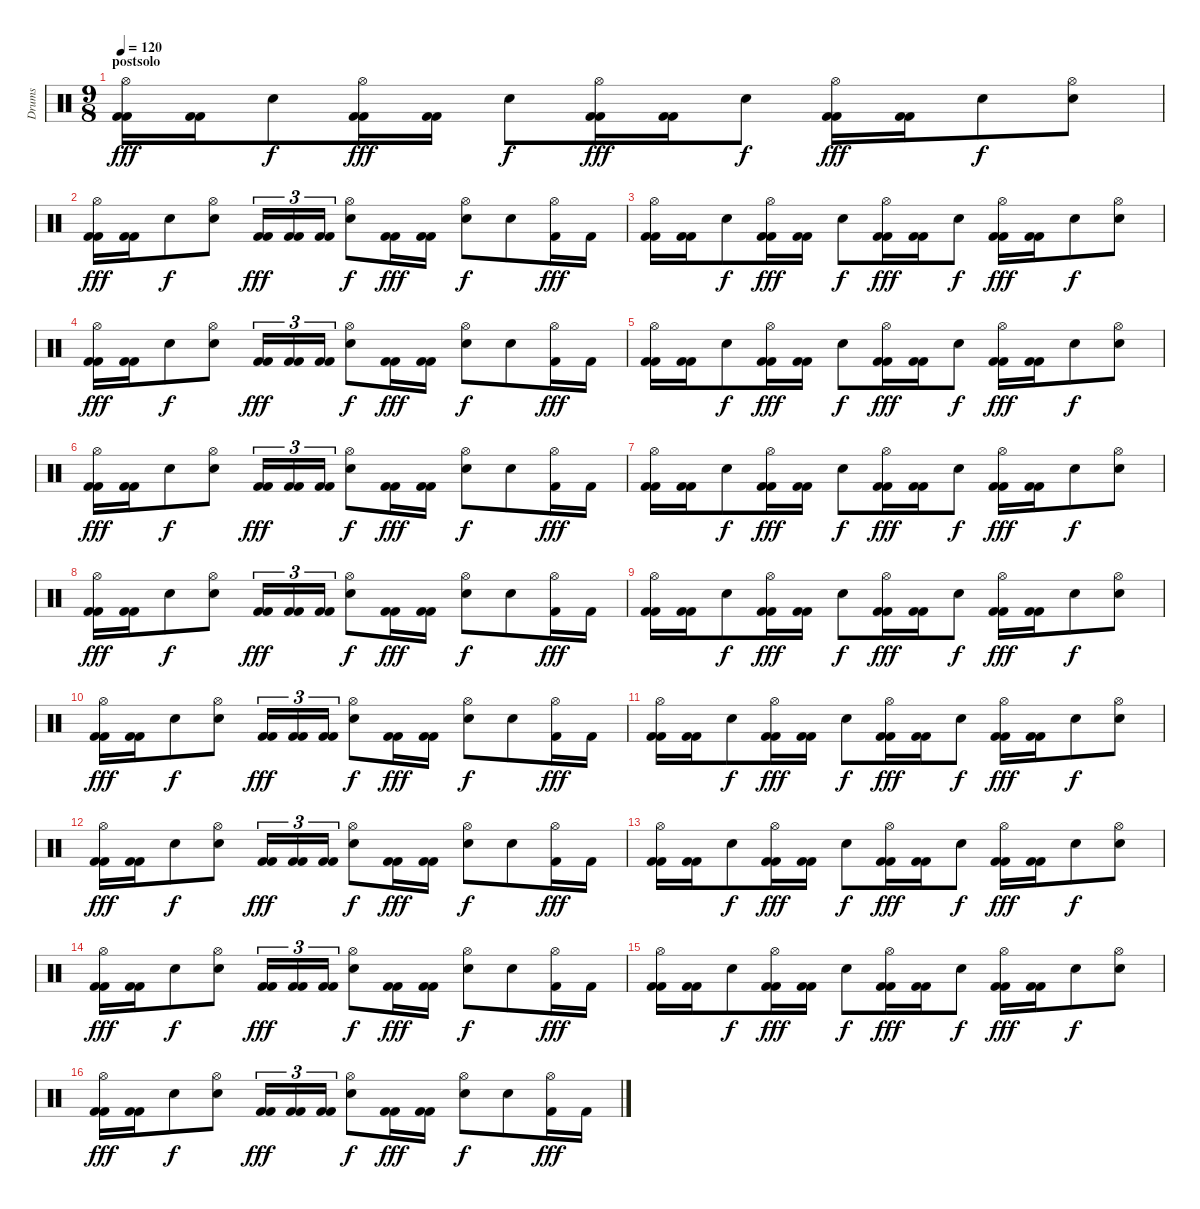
\track ("Drums" "Drums") {instrument percussion}
\staff {score}
\articulation defaults
\ts (9 8)
\section ("" "postsolo")
\tempo 120
\clef neutral
\ks c
("Kick (hit) 2" "Kick (hit) 2" "Hi-Hat (open)").16{dy fff} ("Kick (hit) 2" "Kick (hit) 2").16 "Electric Snare (hit)".8{dy f} ("Kick (hit) 2" "Kick (hit) 2" "Hi-Hat (open)").16{dy fff} ("Kick (hit) 2" "Kick (hit) 2").16 "Electric Snare (hit)".8{dy f} ("Kick (hit) 2" "Kick (hit) 2" "Hi-Hat (open)").16{dy fff} ("Kick (hit) 2" "Kick (hit) 2").16 "Electric Snare (hit)".8{dy f} ("Kick (hit) 2" "Kick (hit) 2" "Hi-Hat (open)").16{dy fff} ("Kick (hit) 2" "Kick (hit) 2").16 "Electric Snare (hit)".8{dy f} ("Electric Snare (hit)" "Hi-Hat (open)").8 |
("Kick (hit) 2" "Kick (hit) 2" "Hi-Hat (open)").16{dy fff} ("Kick (hit) 2" "Kick (hit) 2").16 "Electric Snare (hit)".8{dy f} ("Electric Snare (hit)" "Hi-Hat (open)").8 ("Kick (hit) 2" "Kick (hit) 2").16{tu (3 2) dy fff} ("Kick (hit) 2" "Kick (hit) 2").16{tu (3 2)} ("Kick (hit) 2" "Kick (hit) 2").16{tu (3 2)} ("Electric Snare (hit)" "Hi-Hat (open)").8{dy f} ("Kick (hit) 2" "Kick (hit) 2").16{dy fff} ("Kick (hit) 2" "Kick (hit) 2").16 ("Electric Snare (hit)" "Hi-Hat (open)").8{dy f} "Electric Snare (hit)".8 ("Kick (hit) 2" "Hi-Hat (open)").16{dy fff} "Kick (hit) 2".16 |
("Kick (hit) 2" "Kick (hit) 2" "Hi-Hat (open)").16 ("Kick (hit) 2" "Kick (hit) 2").16 "Electric Snare (hit)".8{dy f} ("Kick (hit) 2" "Kick (hit) 2" "Hi-Hat (open)").16{dy fff} ("Kick (hit) 2" "Kick (hit) 2").16 "Electric Snare (hit)".8{dy f} ("Kick (hit) 2" "Kick (hit) 2" "Hi-Hat (open)").16{dy fff} ("Kick (hit) 2" "Kick (hit) 2").16 "Electric Snare (hit)".8{dy f} ("Kick (hit) 2" "Kick (hit) 2" "Hi-Hat (open)").16{dy fff} ("Kick (hit) 2" "Kick (hit) 2").16 "Electric Snare (hit)".8{dy f} ("Electric Snare (hit)" "Hi-Hat (open)").8 |
("Kick (hit) 2" "Kick (hit) 2" "Hi-Hat (open)").16{dy fff} ("Kick (hit) 2" "Kick (hit) 2").16 "Electric Snare (hit)".8{dy f} ("Electric Snare (hit)" "Hi-Hat (open)").8 ("Kick (hit) 2" "Kick (hit) 2").16{tu (3 2) dy fff} ("Kick (hit) 2" "Kick (hit) 2").16{tu (3 2)} ("Kick (hit) 2" "Kick (hit) 2").16{tu (3 2)} ("Electric Snare (hit)" "Hi-Hat (open)").8{dy f} ("Kick (hit) 2" "Kick (hit) 2").16{dy fff} ("Kick (hit) 2" "Kick (hit) 2").16 ("Electric Snare (hit)" "Hi-Hat (open)").8{dy f} "Electric Snare (hit)".8 ("Kick (hit) 2" "Hi-Hat (open)").16{dy fff} "Kick (hit) 2".16 |
("Kick (hit) 2" "Kick (hit) 2" "Hi-Hat (open)").16 ("Kick (hit) 2" "Kick (hit) 2").16 "Electric Snare (hit)".8{dy f} ("Kick (hit) 2" "Kick (hit) 2" "Hi-Hat (open)").16{dy fff} ("Kick (hit) 2" "Kick (hit) 2").16 "Electric Snare (hit)".8{dy f} ("Kick (hit) 2" "Kick (hit) 2" "Hi-Hat (open)").16{dy fff} ("Kick (hit) 2" "Kick (hit) 2").16 "Electric Snare (hit)".8{dy f} ("Kick (hit) 2" "Kick (hit) 2" "Hi-Hat (open)").16{dy fff} ("Kick (hit) 2" "Kick (hit) 2").16 "Electric Snare (hit)".8{dy f} ("Electric Snare (hit)" "Hi-Hat (open)").8 |
("Kick (hit) 2" "Kick (hit) 2" "Hi-Hat (open)").16{dy fff} ("Kick (hit) 2" "Kick (hit) 2").16 "Electric Snare (hit)".8{dy f} ("Electric Snare (hit)" "Hi-Hat (open)").8 ("Kick (hit) 2" "Kick (hit) 2").16{tu (3 2) dy fff} ("Kick (hit) 2" "Kick (hit) 2").16{tu (3 2)} ("Kick (hit) 2" "Kick (hit) 2").16{tu (3 2)} ("Electric Snare (hit)" "Hi-Hat (open)").8{dy f} ("Kick (hit) 2" "Kick (hit) 2").16{dy fff} ("Kick (hit) 2" "Kick (hit) 2").16 ("Electric Snare (hit)" "Hi-Hat (open)").8{dy f} "Electric Snare (hit)".8 ("Kick (hit) 2" "Hi-Hat (open)").16{dy fff} "Kick (hit) 2".16 |
("Kick (hit) 2" "Kick (hit) 2" "Hi-Hat (open)").16 ("Kick (hit) 2" "Kick (hit) 2").16 "Electric Snare (hit)".8{dy f} ("Kick (hit) 2" "Kick (hit) 2" "Hi-Hat (open)").16{dy fff} ("Kick (hit) 2" "Kick (hit) 2").16 "Electric Snare (hit)".8{dy f} ("Kick (hit) 2" "Kick (hit) 2" "Hi-Hat (open)").16{dy fff} ("Kick (hit) 2" "Kick (hit) 2").16 "Electric Snare (hit)".8{dy f} ("Kick (hit) 2" "Kick (hit) 2" "Hi-Hat (open)").16{dy fff} ("Kick (hit) 2" "Kick (hit) 2").16 "Electric Snare (hit)".8{dy f} ("Electric Snare (hit)" "Hi-Hat (open)").8 |
("Kick (hit) 2" "Kick (hit) 2" "Hi-Hat (open)").16{dy fff} ("Kick (hit) 2" "Kick (hit) 2").16 "Electric Snare (hit)".8{dy f} ("Electric Snare (hit)" "Hi-Hat (open)").8 ("Kick (hit) 2" "Kick (hit) 2").16{tu (3 2) dy fff} ("Kick (hit) 2" "Kick (hit) 2").16{tu (3 2)} ("Kick (hit) 2" "Kick (hit) 2").16{tu (3 2)} ("Electric Snare (hit)" "Hi-Hat (open)").8{dy f} ("Kick (hit) 2" "Kick (hit) 2").16{dy fff} ("Kick (hit) 2" "Kick (hit) 2").16 ("Electric Snare (hit)" "Hi-Hat (open)").8{dy f} "Electric Snare (hit)".8 ("Kick (hit) 2" "Hi-Hat (open)").16{dy fff} "Kick (hit) 2".16 |
("Kick (hit) 2" "Kick (hit) 2" "Hi-Hat (open)").16 ("Kick (hit) 2" "Kick (hit) 2").16 "Electric Snare (hit)".8{dy f} ("Kick (hit) 2" "Kick (hit) 2" "Hi-Hat (open)").16{dy fff} ("Kick (hit) 2" "Kick (hit) 2").16 "Electric Snare (hit)".8{dy f} ("Kick (hit) 2" "Kick (hit) 2" "Hi-Hat (open)").16{dy fff} ("Kick (hit) 2" "Kick (hit) 2").16 "Electric Snare (hit)".8{dy f} ("Kick (hit) 2" "Kick (hit) 2" "Hi-Hat (open)").16{dy fff} ("Kick (hit) 2" "Kick (hit) 2").16 "Electric Snare (hit)".8{dy f} ("Electric Snare (hit)" "Hi-Hat (open)").8 |
("Kick (hit) 2" "Kick (hit) 2" "Hi-Hat (open)").16{dy fff} ("Kick (hit) 2" "Kick (hit) 2").16 "Electric Snare (hit)".8{dy f} ("Electric Snare (hit)" "Hi-Hat (open)").8 ("Kick (hit) 2" "Kick (hit) 2").16{tu (3 2) dy fff} ("Kick (hit) 2" "Kick (hit) 2").16{tu (3 2)} ("Kick (hit) 2" "Kick (hit) 2").16{tu (3 2)} ("Electric Snare (hit)" "Hi-Hat (open)").8{dy f} ("Kick (hit) 2" "Kick (hit) 2").16{dy fff} ("Kick (hit) 2" "Kick (hit) 2").16 ("Electric Snare (hit)" "Hi-Hat (open)").8{dy f} "Electric Snare (hit)".8 ("Kick (hit) 2" "Hi-Hat (open)").16{dy fff} "Kick (hit) 2".16 |
("Kick (hit) 2" "Kick (hit) 2" "Hi-Hat (open)").16 ("Kick (hit) 2" "Kick (hit) 2").16 "Electric Snare (hit)".8{dy f} ("Kick (hit) 2" "Kick (hit) 2" "Hi-Hat (open)").16{dy fff} ("Kick (hit) 2" "Kick (hit) 2").16 "Electric Snare (hit)".8{dy f} ("Kick (hit) 2" "Kick (hit) 2" "Hi-Hat (open)").16{dy fff} ("Kick (hit) 2" "Kick (hit) 2").16 "Electric Snare (hit)".8{dy f} ("Kick (hit) 2" "Kick (hit) 2" "Hi-Hat (open)").16{dy fff} ("Kick (hit) 2" "Kick (hit) 2").16 "Electric Snare (hit)".8{dy f} ("Electric Snare (hit)" "Hi-Hat (open)").8 |
("Kick (hit) 2" "Kick (hit) 2" "Hi-Hat (open)").16{dy fff} ("Kick (hit) 2" "Kick (hit) 2").16 "Electric Snare (hit)".8{dy f} ("Electric Snare (hit)" "Hi-Hat (open)").8 ("Kick (hit) 2" "Kick (hit) 2").16{tu (3 2) dy fff} ("Kick (hit) 2" "Kick (hit) 2").16{tu (3 2)} ("Kick (hit) 2" "Kick (hit) 2").16{tu (3 2)} ("Electric Snare (hit)" "Hi-Hat (open)").8{dy f} ("Kick (hit) 2" "Kick (hit) 2").16{dy fff} ("Kick (hit) 2" "Kick (hit) 2").16 ("Electric Snare (hit)" "Hi-Hat (open)").8{dy f} "Electric Snare (hit)".8 ("Kick (hit) 2" "Hi-Hat (open)").16{dy fff} "Kick (hit) 2".16 |
("Kick (hit) 2" "Kick (hit) 2" "Hi-Hat (open)").16 ("Kick (hit) 2" "Kick (hit) 2").16 "Electric Snare (hit)".8{dy f} ("Kick (hit) 2" "Kick (hit) 2" "Hi-Hat (open)").16{dy fff} ("Kick (hit) 2" "Kick (hit) 2").16 "Electric Snare (hit)".8{dy f} ("Kick (hit) 2" "Kick (hit) 2" "Hi-Hat (open)").16{dy fff} ("Kick (hit) 2" "Kick (hit) 2").16 "Electric Snare (hit)".8{dy f} ("Kick (hit) 2" "Kick (hit) 2" "Hi-Hat (open)").16{dy fff} ("Kick (hit) 2" "Kick (hit) 2").16 "Electric Snare (hit)".8{dy f} ("Electric Snare (hit)" "Hi-Hat (open)").8 |
("Kick (hit) 2" "Kick (hit) 2" "Hi-Hat (open)").16{dy fff} ("Kick (hit) 2" "Kick (hit) 2").16 "Electric Snare (hit)".8{dy f} ("Electric Snare (hit)" "Hi-Hat (open)").8 ("Kick (hit) 2" "Kick (hit) 2").16{tu (3 2) dy fff} ("Kick (hit) 2" "Kick (hit) 2").16{tu (3 2)} ("Kick (hit) 2" "Kick (hit) 2").16{tu (3 2)} ("Electric Snare (hit)" "Hi-Hat (open)").8{dy f} ("Kick (hit) 2" "Kick (hit) 2").16{dy fff} ("Kick (hit) 2" "Kick (hit) 2").16 ("Electric Snare (hit)" "Hi-Hat (open)").8{dy f} "Electric Snare (hit)".8 ("Kick (hit) 2" "Hi-Hat (open)").16{dy fff} "Kick (hit) 2".16 |
("Kick (hit) 2" "Kick (hit) 2" "Hi-Hat (open)").16 ("Kick (hit) 2" "Kick (hit) 2").16 "Electric Snare (hit)".8{dy f} ("Kick (hit) 2" "Kick (hit) 2" "Hi-Hat (open)").16{dy fff} ("Kick (hit) 2" "Kick (hit) 2").16 "Electric Snare (hit)".8{dy f} ("Kick (hit) 2" "Kick (hit) 2" "Hi-Hat (open)").16{dy fff} ("Kick (hit) 2" "Kick (hit) 2").16 "Electric Snare (hit)".8{dy f} ("Kick (hit) 2" "Kick (hit) 2" "Hi-Hat (open)").16{dy fff} ("Kick (hit) 2" "Kick (hit) 2").16 "Electric Snare (hit)".8{dy f} ("Electric Snare (hit)" "Hi-Hat (open)").8 |
("Kick (hit) 2" "Kick (hit) 2" "Hi-Hat (open)").16{dy fff} ("Kick (hit) 2" "Kick (hit) 2").16 "Electric Snare (hit)".8{dy f} ("Electric Snare (hit)" "Hi-Hat (open)").8 ("Kick (hit) 2" "Kick (hit) 2").16{tu (3 2) dy fff} ("Kick (hit) 2" "Kick (hit) 2").16{tu (3 2)} ("Kick (hit) 2" "Kick (hit) 2").16{tu (3 2)} ("Electric Snare (hit)" "Hi-Hat (open)").8{dy f} ("Kick (hit) 2" "Kick (hit) 2").16{dy fff} ("Kick (hit) 2" "Kick (hit) 2").16 ("Electric Snare (hit)" "Hi-Hat (open)").8{dy f} "Electric Snare (hit)".8 ("Kick (hit) 2" "Hi-Hat (open)").16{dy fff} "Kick (hit) 2".16
